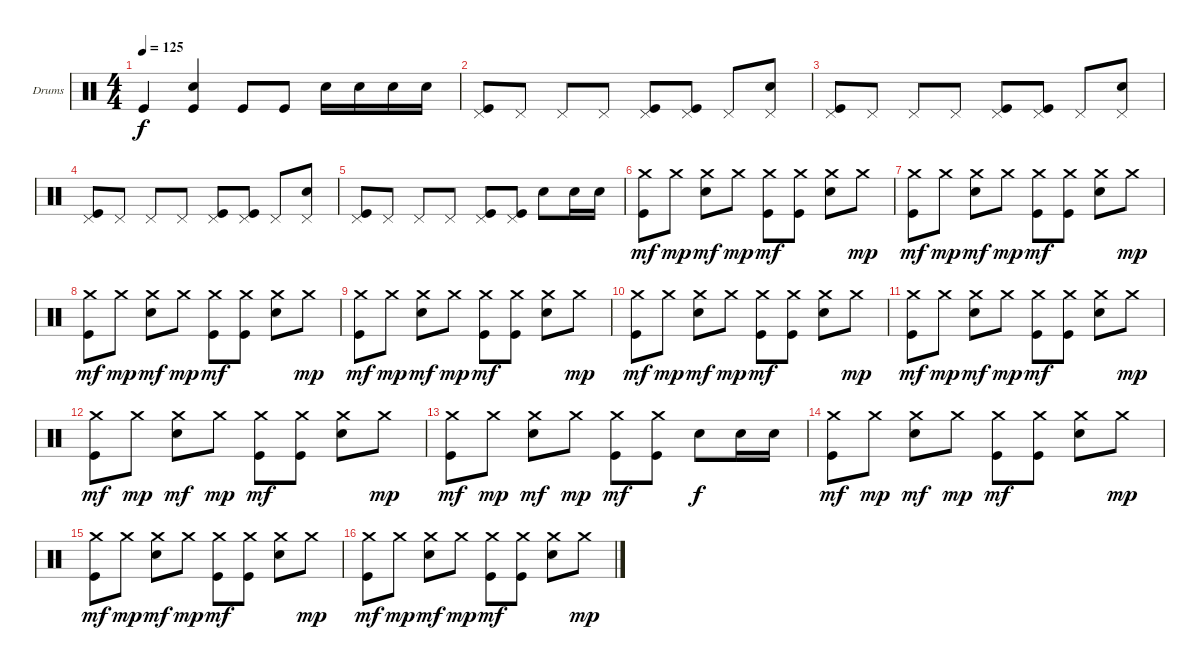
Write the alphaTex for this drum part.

\bracketExtendMode groupsimilarinstruments
\firstSystemTrackNameOrientation horizontal
\otherSystemsTrackNameOrientation horizontal
\track ("Rian Dawson" "Drums") {instrument percussion}
\staff {score}
\articulation defaults
\ts (4 4)
\tempo 125
\clef neutral
\ks c "Kick (hit)".4{dy f}
("Snare (hit) 2" "Kick (hit)").4 "Kick (hit)".8 "Kick (hit)".8 "Snare (hit) 2".16 "Snare (hit) 2".16 "Snare (hit) 2".16 "Snare (hit) 2".16 |
("Pedal Hi-Hat (hit)" "Kick (hit)").8 "Pedal Hi-Hat (hit)".8 "Pedal Hi-Hat (hit)".8 "Pedal Hi-Hat (hit)".8 ("Pedal Hi-Hat (hit)" "Kick (hit)").8 ("Pedal Hi-Hat (hit)" "Kick (hit)").8 "Pedal Hi-Hat (hit)".8 ("Pedal Hi-Hat (hit)" "Snare (hit) 2").8 |
("Pedal Hi-Hat (hit)" "Kick (hit)").8 "Pedal Hi-Hat (hit)".8 "Pedal Hi-Hat (hit)".8 "Pedal Hi-Hat (hit)".8 ("Pedal Hi-Hat (hit)" "Kick (hit)").8 ("Pedal Hi-Hat (hit)" "Kick (hit)").8 "Pedal Hi-Hat (hit)".8 ("Pedal Hi-Hat (hit)" "Snare (hit) 2").8 |
("Pedal Hi-Hat (hit)" "Kick (hit)").8 "Pedal Hi-Hat (hit)".8 "Pedal Hi-Hat (hit)".8 "Pedal Hi-Hat (hit)".8 ("Pedal Hi-Hat (hit)" "Kick (hit)").8 ("Pedal Hi-Hat (hit)" "Kick (hit)").8 "Pedal Hi-Hat (hit)".8 ("Pedal Hi-Hat (hit)" "Snare (hit) 2").8 |
("Pedal Hi-Hat (hit)" "Kick (hit)").8 "Pedal Hi-Hat (hit)".8 "Pedal Hi-Hat (hit)".8 "Pedal Hi-Hat (hit)".8 ("Pedal Hi-Hat (hit)" "Kick (hit)").8 ("Pedal Hi-Hat (hit)" "Kick (hit)").8 "Snare (hit) 2".8 "Snare (hit) 2".16 "Snare (hit) 2".16 |
("Crash medium (hit)" "Kick (hit)").8{dy mf} "Crash medium (hit)".8{dy mp} ("Crash medium (hit)" "Snare (hit) 2").8{dy mf} "Crash medium (hit)".8{dy mp} ("Crash medium (hit)" "Kick (hit)").8{dy mf} ("Crash medium (hit)" "Kick (hit)").8 ("Crash medium (hit)" "Snare (hit) 2").8 "Crash medium (hit)".8{dy mp} |
("Crash medium (hit)" "Kick (hit)").8{dy mf} "Crash medium (hit)".8{dy mp} ("Crash medium (hit)" "Snare (hit) 2").8{dy mf} "Crash medium (hit)".8{dy mp} ("Crash medium (hit)" "Kick (hit)").8{dy mf} ("Crash medium (hit)" "Kick (hit)").8 ("Crash medium (hit)" "Snare (hit) 2").8 "Crash medium (hit)".8{dy mp} |
("Crash medium (hit)" "Kick (hit)").8{dy mf} "Crash medium (hit)".8{dy mp} ("Crash medium (hit)" "Snare (hit) 2").8{dy mf} "Crash medium (hit)".8{dy mp} ("Crash medium (hit)" "Kick (hit)").8{dy mf} ("Crash medium (hit)" "Kick (hit)").8 ("Crash medium (hit)" "Snare (hit) 2").8 "Crash medium (hit)".8{dy mp} |
("Crash medium (hit)" "Kick (hit)").8{dy mf} "Crash medium (hit)".8{dy mp} ("Crash medium (hit)" "Snare (hit) 2").8{dy mf} "Crash medium (hit)".8{dy mp} ("Crash medium (hit)" "Kick (hit)").8{dy mf} ("Crash medium (hit)" "Kick (hit)").8 ("Crash medium (hit)" "Snare (hit) 2").8 "Crash medium (hit)".8{dy mp} |
("Crash medium (hit)" "Kick (hit)").8{dy mf} "Crash medium (hit)".8{dy mp} ("Crash medium (hit)" "Snare (hit) 2").8{dy mf} "Crash medium (hit)".8{dy mp} ("Crash medium (hit)" "Kick (hit)").8{dy mf} ("Crash medium (hit)" "Kick (hit)").8 ("Crash medium (hit)" "Snare (hit) 2").8 "Crash medium (hit)".8{dy mp} |
("Crash medium (hit)" "Kick (hit)").8{dy mf} "Crash medium (hit)".8{dy mp} ("Crash medium (hit)" "Snare (hit) 2").8{dy mf} "Crash medium (hit)".8{dy mp} ("Crash medium (hit)" "Kick (hit)").8{dy mf} ("Crash medium (hit)" "Kick (hit)").8 ("Crash medium (hit)" "Snare (hit) 2").8 "Crash medium (hit)".8{dy mp} |
("Crash medium (hit)" "Kick (hit)").8{dy mf} "Crash medium (hit)".8{dy mp} ("Crash medium (hit)" "Snare (hit) 2").8{dy mf} "Crash medium (hit)".8{dy mp} ("Crash medium (hit)" "Kick (hit)").8{dy mf} ("Crash medium (hit)" "Kick (hit)").8 ("Crash medium (hit)" "Snare (hit) 2").8 "Crash medium (hit)".8{dy mp} |
("Crash medium (hit)" "Kick (hit)").8{dy mf} "Crash medium (hit)".8{dy mp} ("Crash medium (hit)" "Snare (hit) 2").8{dy mf} "Crash medium (hit)".8{dy mp} ("Crash medium (hit)" "Kick (hit)").8{dy mf} ("Crash medium (hit)" "Kick (hit)").8 "Snare (hit) 2".8{dy f} "Snare (hit) 2".16 "Snare (hit) 2".16 |
("Crash medium (hit)" "Kick (hit)").8{dy mf} "Crash medium (hit)".8{dy mp} ("Crash medium (hit)" "Snare (hit) 2").8{dy mf} "Crash medium (hit)".8{dy mp} ("Crash medium (hit)" "Kick (hit)").8{dy mf} ("Crash medium (hit)" "Kick (hit)").8 ("Crash medium (hit)" "Snare (hit) 2").8 "Crash medium (hit)".8{dy mp} |
("Crash medium (hit)" "Kick (hit)").8{dy mf} "Crash medium (hit)".8{dy mp} ("Crash medium (hit)" "Snare (hit) 2").8{dy mf} "Crash medium (hit)".8{dy mp} ("Crash medium (hit)" "Kick (hit)").8{dy mf} ("Crash medium (hit)" "Kick (hit)").8 ("Crash medium (hit)" "Snare (hit) 2").8 "Crash medium (hit)".8{dy mp} |
("Crash medium (hit)" "Kick (hit)").8{dy mf} "Crash medium (hit)".8{dy mp} ("Crash medium (hit)" "Snare (hit) 2").8{dy mf} "Crash medium (hit)".8{dy mp} ("Crash medium (hit)" "Kick (hit)").8{dy mf} ("Crash medium (hit)" "Kick (hit)").8 ("Crash medium (hit)" "Snare (hit) 2").8 "Crash medium (hit)".8{dy mp}
